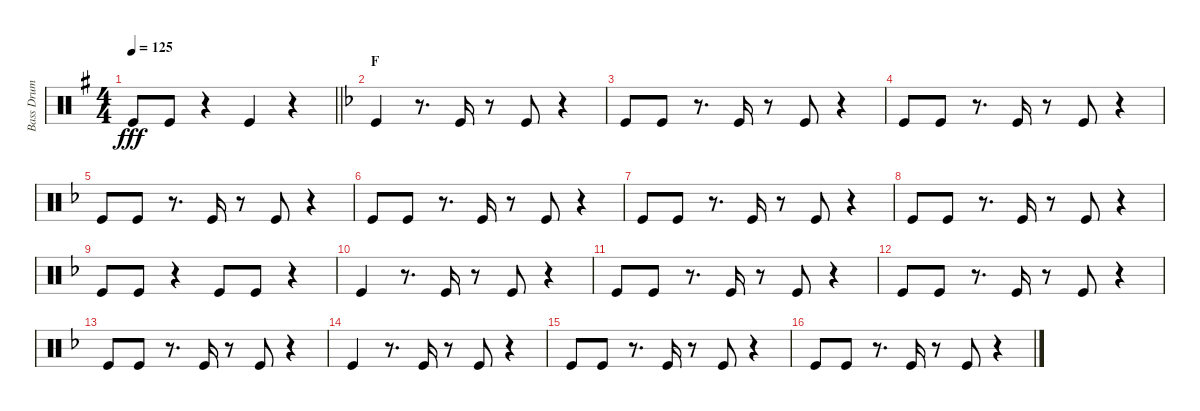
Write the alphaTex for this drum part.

\track ("Bass Drum" "Bass Drum") {instrument percussion}
\staff {score}
\articulation defaults
\ts (4 4)
\tempo 125
\clef neutral
\barLineRight lightlight
\ks g "Kick (hit)".8{dy fff} "Kick (hit)".8
r.4 "Kick (hit)".4 r.4 |
\section ("" "F")
\ks f "Kick (hit)".4
r.8{d} "Kick (hit)".16 r.8 "Kick (hit)".8 r.4 |
"Kick (hit)".8 "Kick (hit)".8 r.8{d} "Kick (hit)".16 r.8 "Kick (hit)".8 r.4 |
"Kick (hit)".8 "Kick (hit)".8 r.8{d} "Kick (hit)".16 r.8 "Kick (hit)".8 r.4 |
"Kick (hit)".8 "Kick (hit)".8 r.8{d} "Kick (hit)".16 r.8 "Kick (hit)".8 r.4 |
"Kick (hit)".8 "Kick (hit)".8 r.8{d} "Kick (hit)".16 r.8 "Kick (hit)".8 r.4 |
"Kick (hit)".8 "Kick (hit)".8 r.8{d} "Kick (hit)".16 r.8 "Kick (hit)".8 r.4 |
"Kick (hit)".8 "Kick (hit)".8 r.8{d} "Kick (hit)".16 r.8 "Kick (hit)".8 r.4 |
"Kick (hit)".8 "Kick (hit)".8 r.4 "Kick (hit)".8 "Kick (hit)".8 r.4 |
"Kick (hit)".4 r.8{d} "Kick (hit)".16 r.8 "Kick (hit)".8 r.4 |
"Kick (hit)".8 "Kick (hit)".8 r.8{d} "Kick (hit)".16 r.8 "Kick (hit)".8 r.4 |
"Kick (hit)".8 "Kick (hit)".8 r.8{d} "Kick (hit)".16 r.8 "Kick (hit)".8 r.4 |
"Kick (hit)".8 "Kick (hit)".8 r.8{d} "Kick (hit)".16 r.8 "Kick (hit)".8 r.4 |
"Kick (hit)".4 r.8{d} "Kick (hit)".16 r.8 "Kick (hit)".8 r.4 |
"Kick (hit)".8 "Kick (hit)".8 r.8{d} "Kick (hit)".16 r.8 "Kick (hit)".8 r.4 |
"Kick (hit)".8 "Kick (hit)".8 r.8{d} "Kick (hit)".16 r.8 "Kick (hit)".8 r.4
